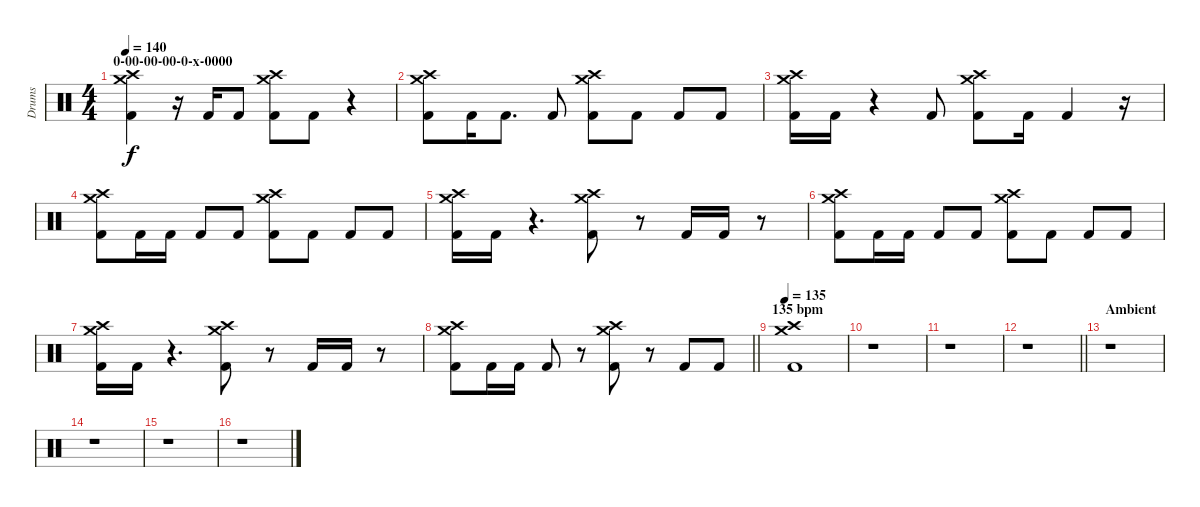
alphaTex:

\track ("Drums" "Drums") {instrument percussion}
\staff {score}
\articulation defaults
\ts (4 4)
\section ("" "0-00-00-00-0-x-0000")
\tempo 140
\clef neutral
\ks c
("Kick (hit) 2" "Crash high (hit)" "Crash medium (hit)").4{dy f} r.16 "Kick (hit) 2".16 "Kick (hit) 2".8 ("Kick (hit) 2" "Crash high (hit)" "Crash medium (hit)").8 "Kick (hit) 2".8 r.4 |
("Kick (hit) 2" "Crash high (hit)" "Crash medium (hit)").8 "Kick (hit) 2".16 "Kick (hit) 2".8{d} "Kick (hit) 2".8 ("Kick (hit) 2" "Crash high (hit)" "Crash medium (hit)").8 "Kick (hit) 2".8 "Kick (hit) 2".8 "Kick (hit) 2".8 |
("Kick (hit) 2" "Crash high (hit)" "Crash medium (hit)").16 "Kick (hit) 2".16 r.4 "Kick (hit) 2".8 ("Crash high (hit)" "Kick (hit) 2" "Crash medium (hit)").8 "Kick (hit) 2".16 "Kick (hit) 2".4 r.16 |
("Kick (hit) 2" "Crash high (hit)" "Crash medium (hit)").8 "Kick (hit) 2".16 "Kick (hit) 2".16 "Kick (hit) 2".8 "Kick (hit) 2".8 ("Kick (hit) 2" "Crash high (hit)" "Crash medium (hit)").8 "Kick (hit) 2".8 "Kick (hit) 2".8 "Kick (hit) 2".8 |
("Kick (hit) 2" "Crash high (hit)" "Crash medium (hit)").16 "Kick (hit) 2".16 r.4{d} ("Kick (hit) 2" "Crash high (hit)" "Crash medium (hit)").8 r.8 "Kick (hit) 2".16 "Kick (hit) 2".16 r.8 |
("Kick (hit) 2" "Crash high (hit)" "Crash medium (hit)").8 "Kick (hit) 2".16 "Kick (hit) 2".16 "Kick (hit) 2".8 "Kick (hit) 2".8 ("Kick (hit) 2" "Crash high (hit)" "Crash medium (hit)").8 "Kick (hit) 2".8 "Kick (hit) 2".8 "Kick (hit) 2".8 |
("Kick (hit) 2" "Crash high (hit)" "Crash medium (hit)").16 "Kick (hit) 2".16 r.4{d} ("Kick (hit) 2" "Crash high (hit)" "Crash medium (hit)").8 r.8 "Kick (hit) 2".16 "Kick (hit) 2".16 r.8 |
\barLineRight lightlight
("Kick (hit) 2" "Crash high (hit)" "Crash medium (hit)").8 "Kick (hit) 2".16 "Kick (hit) 2".16 "Kick (hit) 2".8 r.8 ("Kick (hit) 2" "Crash high (hit)" "Crash medium (hit)").8 r.8 "Kick (hit) 2".8 "Kick (hit) 2".8 |
\section ("" "135 bpm")
\tempo 135
("Crash high (hit)" "Kick (hit) 2" "Crash medium (hit)").1 |
r.1 |
r.1 |
\barLineRight lightlight
r.1 |
\section ("" "Ambient")
r.1 |
r.1 |
r.1 |
r.1
